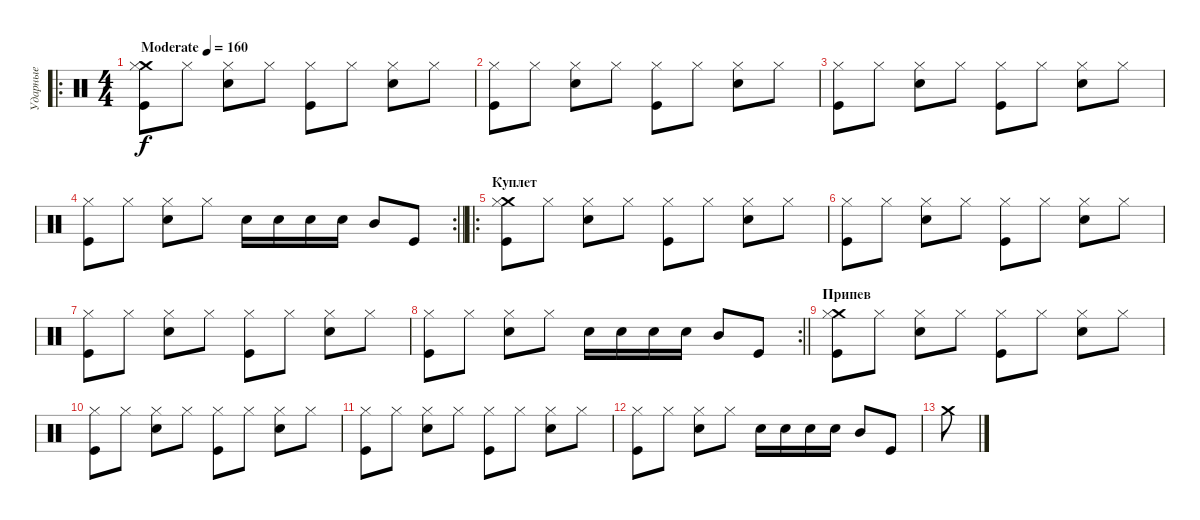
\track ("Ударные" "Ударные") {instrument percussion}
\staff {score}
\articulation defaults
\ro
\ts (4 4)
\tempo (160 "Moderate")
\clef neutral
\ks c
("Crash medium (hit)" "Hi-Hat (closed)" "Kick (hit)").8{dy f} "Hi-Hat (closed)".8 ("Hi-Hat (closed)" "Electric Snare (hit)").8 "Hi-Hat (closed)".8 ("Hi-Hat (closed)" "Kick (hit)").8 "Hi-Hat (closed)".8 ("Hi-Hat (closed)" "Electric Snare (hit)").8 "Hi-Hat (closed)".8 |
("Hi-Hat (closed)" "Kick (hit)").8 "Hi-Hat (closed)".8 ("Hi-Hat (closed)" "Electric Snare (hit)").8 "Hi-Hat (closed)".8 ("Hi-Hat (closed)" "Kick (hit)").8 "Hi-Hat (closed)".8 ("Hi-Hat (closed)" "Electric Snare (hit)").8 "Hi-Hat (closed)".8 |
("Hi-Hat (closed)" "Kick (hit)").8 "Hi-Hat (closed)".8 ("Hi-Hat (closed)" "Electric Snare (hit)").8 "Hi-Hat (closed)".8 ("Hi-Hat (closed)" "Kick (hit)").8 "Hi-Hat (closed)".8 ("Hi-Hat (closed)" "Electric Snare (hit)").8 "Hi-Hat (closed)".8 |
\rc 2
\barLineRight lightlight
("Hi-Hat (closed)" "Kick (hit)").8 "Hi-Hat (closed)".8 ("Hi-Hat (closed)" "Electric Snare (hit)").8 "Hi-Hat (closed)".8 "Electric Snare (hit)".16 "Electric Snare (hit)".16 "Electric Snare (hit)".16 "Electric Snare (hit)".16 "Mid Tom (hit)".8 "Kick (hit)".8 |
\ro
\section ("" "Куплет")
("Crash medium (hit)" "Hi-Hat (closed)" "Kick (hit)").8 "Hi-Hat (closed)".8 ("Hi-Hat (closed)" "Electric Snare (hit)").8 "Hi-Hat (closed)".8 ("Hi-Hat (closed)" "Kick (hit)").8 "Hi-Hat (closed)".8 ("Hi-Hat (closed)" "Electric Snare (hit)").8 "Hi-Hat (closed)".8 |
("Hi-Hat (closed)" "Kick (hit)").8 "Hi-Hat (closed)".8 ("Hi-Hat (closed)" "Electric Snare (hit)").8 "Hi-Hat (closed)".8 ("Hi-Hat (closed)" "Kick (hit)").8 "Hi-Hat (closed)".8 ("Hi-Hat (closed)" "Electric Snare (hit)").8 "Hi-Hat (closed)".8 |
("Hi-Hat (closed)" "Kick (hit)").8 "Hi-Hat (closed)".8 ("Hi-Hat (closed)" "Electric Snare (hit)").8 "Hi-Hat (closed)".8 ("Hi-Hat (closed)" "Kick (hit)").8 "Hi-Hat (closed)".8 ("Hi-Hat (closed)" "Electric Snare (hit)").8 "Hi-Hat (closed)".8 |
\rc 2
\barLineRight lightlight
("Hi-Hat (closed)" "Kick (hit)").8 "Hi-Hat (closed)".8 ("Hi-Hat (closed)" "Electric Snare (hit)").8 "Hi-Hat (closed)".8 "Electric Snare (hit)".16 "Electric Snare (hit)".16 "Electric Snare (hit)".16 "Electric Snare (hit)".16 "Mid Tom (hit)".8 "Kick (hit)".8 |
\section ("" "Припев")
("Crash medium (hit)" "Hi-Hat (closed)" "Kick (hit)").8 "Hi-Hat (closed)".8 ("Hi-Hat (closed)" "Electric Snare (hit)").8 "Hi-Hat (closed)".8 ("Hi-Hat (closed)" "Kick (hit)").8 "Hi-Hat (closed)".8 ("Hi-Hat (closed)" "Electric Snare (hit)").8 "Hi-Hat (closed)".8 |
("Hi-Hat (closed)" "Kick (hit)").8 "Hi-Hat (closed)".8 ("Hi-Hat (closed)" "Electric Snare (hit)").8 "Hi-Hat (closed)".8 ("Hi-Hat (closed)" "Kick (hit)").8 "Hi-Hat (closed)".8 ("Hi-Hat (closed)" "Electric Snare (hit)").8 "Hi-Hat (closed)".8 |
("Hi-Hat (closed)" "Kick (hit)").8 "Hi-Hat (closed)".8 ("Hi-Hat (closed)" "Electric Snare (hit)").8 "Hi-Hat (closed)".8 ("Hi-Hat (closed)" "Kick (hit)").8 "Hi-Hat (closed)".8 ("Hi-Hat (closed)" "Electric Snare (hit)").8 "Hi-Hat (closed)".8 |
("Hi-Hat (closed)" "Kick (hit)").8 "Hi-Hat (closed)".8 ("Hi-Hat (closed)" "Electric Snare (hit)").8 "Hi-Hat (closed)".8 "Electric Snare (hit)".16 "Electric Snare (hit)".16 "Electric Snare (hit)".16 "Electric Snare (hit)".16 "Mid Tom (hit)".8 "Kick (hit)".8 |
"Crash medium (hit)".8
